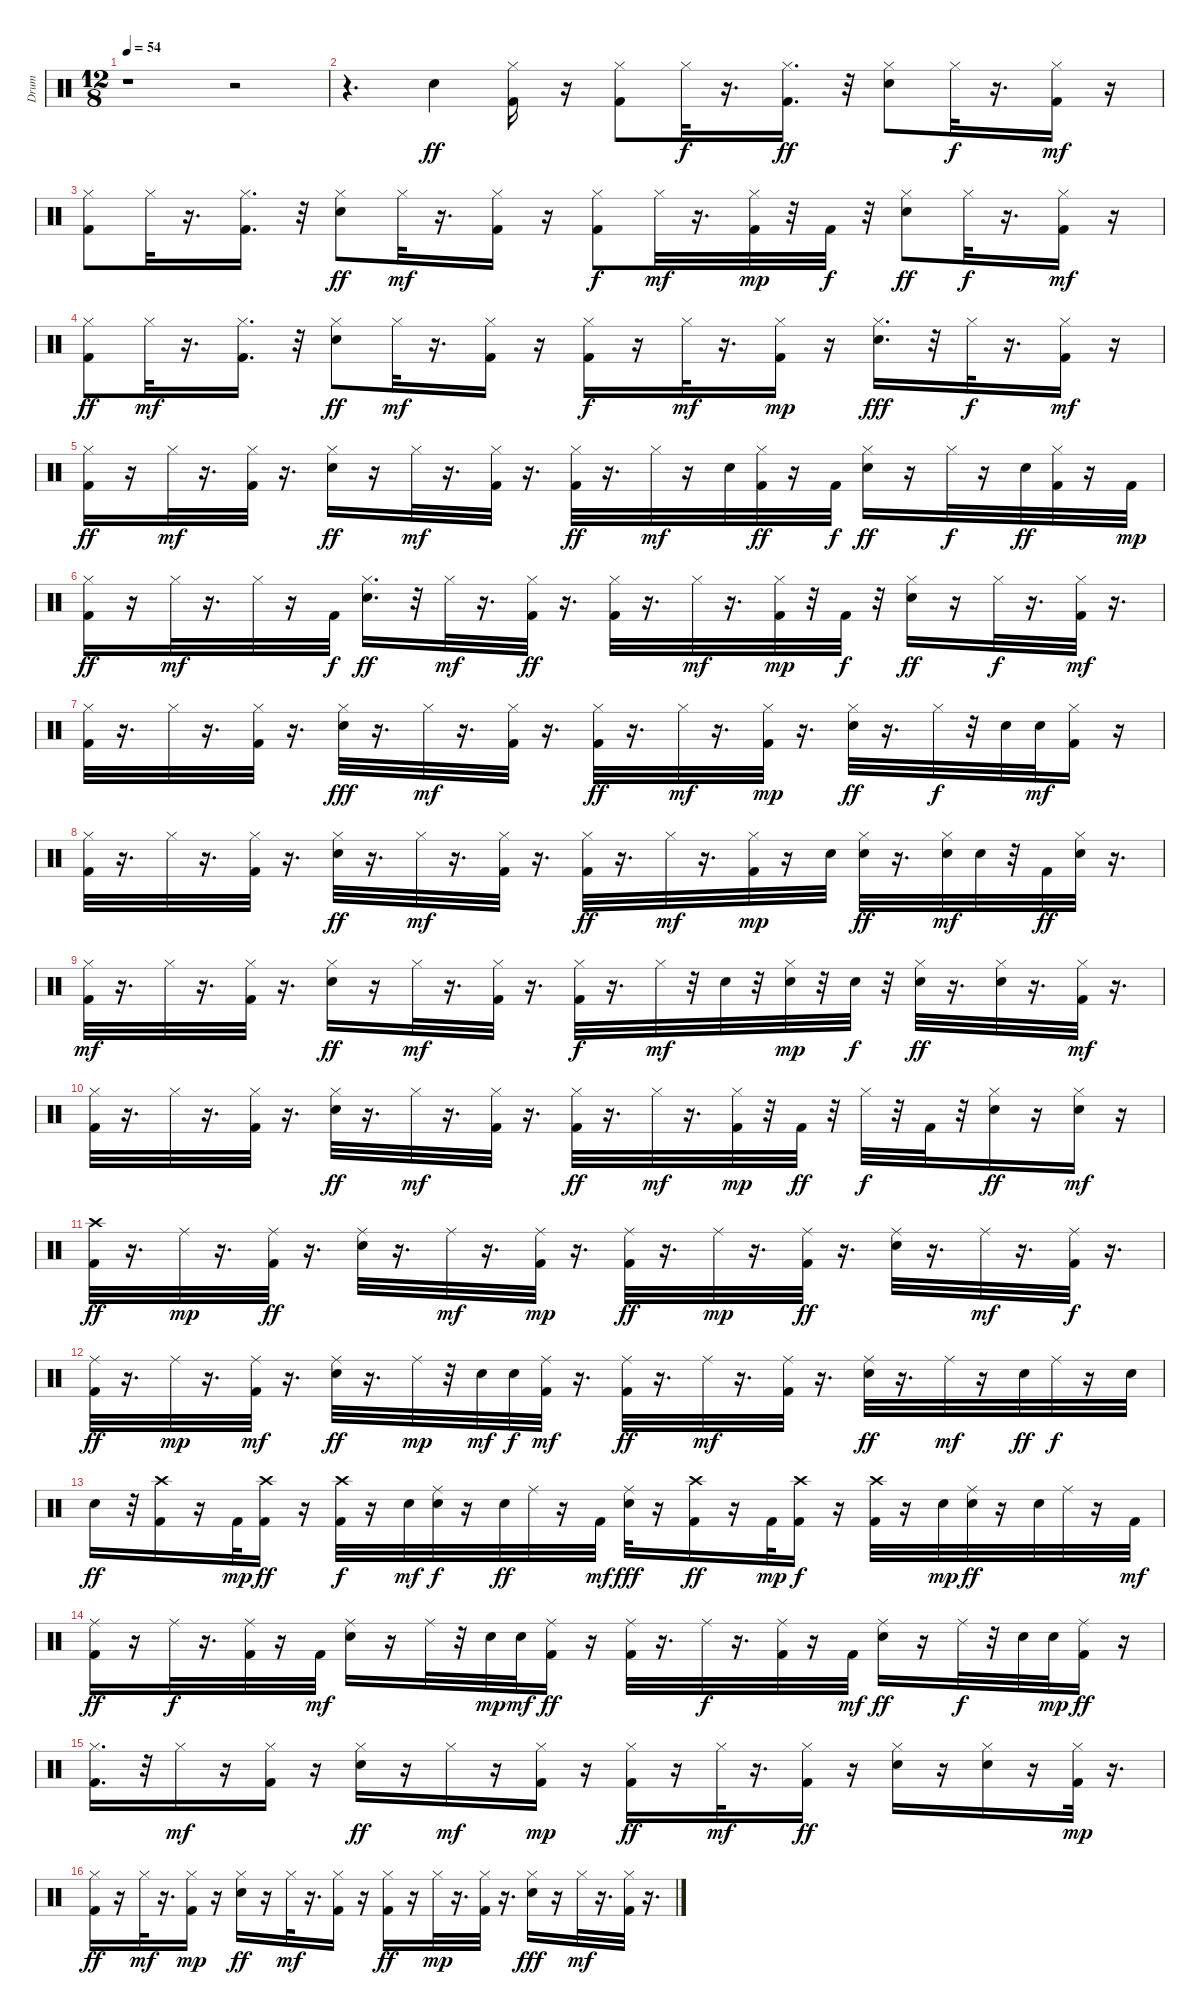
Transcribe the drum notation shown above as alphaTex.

\track ("Drum" "Drum") {instrument percussion}
\staff {score}
\articulation defaults
\ts (12 8)
\tempo 54
\clef neutral
\ks c
r.1{dy ff} r.2 |
r.4{d} "Electric Snare (hit)".4 ("Hi-Hat (closed)" "Kick (hit) 2").16 r.16 ("Kick (hit) 2" "Hi-Hat (closed)").8 "Hi-Hat (closed)".32{dy f} r.16{d} ("Hi-Hat (closed)" "Kick (hit) 2").16{d dy ff} r.32 ("Hi-Hat (closed)" "Electric Snare (hit)").8 "Hi-Hat (closed)".32{dy f} r.16{d} ("Kick (hit) 2" "Hi-Hat (closed)").16{dy mf} r.16 |
("Kick (hit) 2" "Hi-Hat (closed)").8 "Hi-Hat (closed)".32 r.16{d} ("Hi-Hat (closed)" "Kick (hit) 2").16{d} r.32 ("Electric Snare (hit)" "Hi-Hat (closed)").8{dy ff} "Hi-Hat (closed)".32{dy mf} r.16{d} ("Hi-Hat (closed)" "Kick (hit) 2").16 r.16 ("Kick (hit) 2" "Hi-Hat (closed)").8{dy f} "Hi-Hat (closed)".32{dy mf} r.16{d} ("Hi-Hat (closed)" "Kick (hit) 2").32{dy mp} r.32 "Kick (hit) 2".32{dy f} r.32 ("Hi-Hat (closed)" "Electric Snare (hit)").8{dy ff} "Hi-Hat (closed)".32{dy f} r.16{d} ("Hi-Hat (closed)" "Kick (hit) 2").16{dy mf} r.16 |
("Hi-Hat (closed)" "Kick (hit) 2").8{dy ff} "Hi-Hat (closed)".32{dy mf} r.16{d} ("Hi-Hat (closed)" "Kick (hit) 2").16{d} r.32 ("Electric Snare (hit)" "Hi-Hat (closed)").8{dy ff} "Hi-Hat (closed)".32{dy mf} r.16{d} ("Hi-Hat (closed)" "Kick (hit) 2").16 r.16 ("Kick (hit) 2" "Hi-Hat (closed)").16{dy f} r.16 "Hi-Hat (closed)".32{dy mf} r.16{d} ("Hi-Hat (closed)" "Kick (hit) 2").16{dy mp} r.16 ("Hi-Hat (closed)" "Electric Snare (hit)").16{d dy fff} r.32 "Hi-Hat (closed)".32{dy f} r.16{d} ("Hi-Hat (closed)" "Kick (hit) 2").16{dy mf} r.16 |
("Hi-Hat (closed)" "Kick (hit) 2").16{dy ff} r.16 "Hi-Hat (closed)".32{dy mf} r.16{d} ("Hi-Hat (closed)" "Kick (hit) 2").32 r.16{d} ("Electric Snare (hit)" "Hi-Hat (closed)").16{dy ff} r.16 "Hi-Hat (closed)".32{dy mf} r.16{d} ("Hi-Hat (closed)" "Kick (hit) 2").32 r.16{d} ("Kick (hit) 2" "Hi-Hat (closed)").32{dy ff} r.16{d} "Hi-Hat (closed)".32{dy mf} r.16 "Electric Snare (hit)".32 ("Hi-Hat (closed)" "Kick (hit) 2").32{dy ff} r.16 "Kick (hit) 2".32{dy f} ("Hi-Hat (closed)" "Electric Snare (hit)").16{dy ff} r.16 "Hi-Hat (closed)".32{dy f} r.16 "Electric Snare (hit)".32{dy ff} ("Hi-Hat (closed)" "Kick (hit) 2").32 r.16 "Kick (hit) 2".32{dy mp} |
("Hi-Hat (closed)" "Kick (hit) 2").16{dy ff} r.16 "Hi-Hat (closed)".32{dy mf} r.16{d} "Hi-Hat (closed)".32 r.16 "Kick (hit) 2".32{dy f} ("Electric Snare (hit)" "Hi-Hat (closed)").16{d dy ff} r.32 "Hi-Hat (closed)".32{dy mf} r.16{d} ("Hi-Hat (closed)" "Kick (hit) 2").32{dy ff} r.16{d} ("Kick (hit) 2" "Hi-Hat (closed)").32 r.16{d} "Hi-Hat (closed)".32{dy mf} r.16{d} ("Hi-Hat (closed)" "Kick (hit) 2").32{dy mp} r.32 "Kick (hit) 2".32{dy f} r.32 ("Hi-Hat (closed)" "Electric Snare (hit)").16{dy ff} r.16 "Hi-Hat (closed)".32{dy f} r.16{d} ("Hi-Hat (closed)" "Kick (hit) 2").32{dy mf} r.16{d} |
("Hi-Hat (closed)" "Kick (hit) 2").32 r.16{d} "Hi-Hat (closed)".32 r.16{d} ("Kick (hit) 2" "Hi-Hat (closed)").32 r.16{d} ("Electric Snare (hit)" "Hi-Hat (closed)").32{dy fff} r.16{d} "Hi-Hat (closed)".32{dy mf} r.16{d} ("Kick (hit) 2" "Hi-Hat (closed)").32 r.16{d} ("Kick (hit) 2" "Hi-Hat (closed)").32{dy ff} r.16{d} "Hi-Hat (closed)".32{dy mf} r.16{d} ("Kick (hit) 2" "Hi-Hat (closed)").32{dy mp} r.16{d} ("Electric Snare (hit)" "Hi-Hat (closed)").32{dy ff} r.16{d} "Hi-Hat (closed)".32{dy f} r.32 "Electric Snare (hit)".32 "Electric Snare (hit)".32{dy mf} ("Kick (hit) 2" "Hi-Hat (closed)").16 r.16 |
("Kick (hit) 2" "Hi-Hat (closed)").32 r.16{d} "Hi-Hat (closed)".32 r.16{d} ("Kick (hit) 2" "Hi-Hat (closed)").32 r.16{d} ("Electric Snare (hit)" "Hi-Hat (closed)").32{dy ff} r.16{d} "Hi-Hat (closed)".32{dy mf} r.16{d} ("Kick (hit) 2" "Hi-Hat (closed)").32 r.16{d} ("Kick (hit) 2" "Hi-Hat (closed)").32{dy ff} r.16{d} "Hi-Hat (closed)".32{dy mf} r.16{d} ("Kick (hit) 2" "Hi-Hat (closed)").32{dy mp} r.16 "Electric Snare (hit)".32 ("Electric Snare (hit)" "Hi-Hat (closed)").32{dy ff} r.16{d} ("Electric Snare (hit)" "Hi-Hat (closed)").32{dy mf} "Electric Snare (hit)".32 r.32 "Kick (hit) 2".32{dy ff} ("Hi-Hat (closed)" "Electric Snare (hit)").32 r.16{d} |
("Kick (hit) 2" "Hi-Hat (closed)").32{dy mf} r.16{d} "Hi-Hat (closed)".32 r.16{d} ("Kick (hit) 2" "Hi-Hat (closed)").32 r.16{d} ("Electric Snare (hit)" "Hi-Hat (closed)").16{dy ff} r.16 "Hi-Hat (closed)".32{dy mf} r.16{d} ("Kick (hit) 2" "Hi-Hat (closed)").32 r.16{d} ("Kick (hit) 2" "Hi-Hat (closed)").32{dy f} r.16{d} "Hi-Hat (closed)".32{dy mf} r.32 "Electric Snare (hit)".32 r.32 ("Electric Snare (hit)" "Hi-Hat (closed)").32{dy mp} r.32 "Electric Snare (hit)".32{dy f} r.32 ("Electric Snare (hit)" "Hi-Hat (closed)").32{dy ff} r.16{d} ("Electric Snare (hit)" "Hi-Hat (closed)").32 r.16{d} ("Hi-Hat (closed)" "Kick (hit) 2").32{dy mf} r.16{d} |
("Kick (hit) 2" "Hi-Hat (closed)").32 r.16{d} "Hi-Hat (closed)".32 r.16{d} ("Kick (hit) 2" "Hi-Hat (closed)").32 r.16{d} ("Electric Snare (hit)" "Hi-Hat (closed)").32{dy ff} r.16{d} "Hi-Hat (closed)".32{dy mf} r.16{d} ("Hi-Hat (closed)" "Kick (hit) 2").32 r.16{d} ("Kick (hit) 2" "Hi-Hat (closed)").32{dy ff} r.16{d} "Hi-Hat (closed)".32{dy mf} r.16{d} ("Kick (hit) 2" "Hi-Hat (closed)").32{dy mp} r.32 "Kick (hit) 2".32{dy ff} r.32 "Hi-Hat (closed)".32{dy f} r.32 "Kick (hit) 2".32 r.32 ("Electric Snare (hit)" "Hi-Hat (closed)").16{dy ff} r.16 ("Electric Snare (hit)" "Hi-Hat (closed)").16{dy mf} r.16 |
("Kick (hit) 2" "Crash high (hit)").32{dy ff} r.16{d} "Ride (middle)".32{dy mp} r.16{d} ("Kick (hit) 2" "Ride (middle)").32{dy ff} r.16{d} ("Electric Snare (hit)" "Ride (middle)").32 r.16{d} "Ride (middle)".32{dy mf} r.16{d} ("Kick (hit) 2" "Ride (middle)").32{dy mp} r.16{d} ("Kick (hit) 2" "Ride (middle)").32{dy ff} r.16{d} "Ride (middle)".32{dy mp} r.16{d} ("Kick (hit) 2" "Ride (middle)").32{dy ff} r.16{d} ("Electric Snare (hit)" "Ride (middle)").32 r.16{d} "Ride (middle)".32{dy mf} r.16{d} ("Kick (hit) 2" "Ride (middle)").32{dy f} r.16{d} |
("Kick (hit) 2" "Ride (middle)").32{dy ff} r.16{d} "Ride (middle)".32{dy mp} r.16{d} ("Kick (hit) 2" "Ride (middle)").32{dy mf} r.16{d} ("Electric Snare (hit)" "Ride (middle)").32{dy ff} r.16{d} "Ride (middle)".32{dy mp} r.32 "Electric Snare (hit)".32{dy mf} "Electric Snare (hit)".32{dy f} ("Ride (middle)" "Kick (hit) 2").32{dy mf} r.16{d} ("Kick (hit) 2" "Ride (middle)").32{dy ff} r.16{d} "Ride (middle)".32{dy mf} r.16{d} ("Kick (hit) 2" "Ride (middle)").32 r.16{d} ("Electric Snare (hit)" "Ride (middle)").32{dy ff} r.16{d} "Ride (middle)".32{dy mf} r.16 "Electric Snare (hit)".32{dy ff} "Ride (middle)".32{dy f} r.16 "Electric Snare (hit)".32 |
"Electric Snare (hit)".16{dy ff} r.32 ("Kick (hit) 2" "Crash high (hit)").16 r.16 "Kick (hit) 2".32{dy mp} ("Kick (hit) 2" "Crash high (hit)").16{dy ff} r.16 ("Kick (hit) 2" "Crash high (hit)").32{dy f} r.16 "Electric Snare (hit)".32{dy mf} ("Electric Snare (hit)" "Ride (middle)").32{dy f} r.16 "Electric Snare (hit)".32{dy ff} "Ride (middle)".32 r.16 "Kick (hit) 2".32{dy mf} ("Electric Snare (hit)" "Ride (middle)").32{dy fff} r.16 ("Kick (hit) 2" "Crash high (hit)").16{dy ff} r.16 "Kick (hit) 2".32{dy mp} ("Crash high (hit)" "Kick (hit) 2").16{dy f} r.16 ("Kick (hit) 2" "Crash high (hit)").32 r.16 "Electric Snare (hit)".32{dy mp} ("Electric Snare (hit)" "Ride (middle)").32{dy ff} r.16 "Electric Snare (hit)".32 "Ride (middle)".32 r.16 "Kick (hit) 2".32{dy mf} |
("Kick (hit) 2" "Ride (middle)").16{dy ff} r.16 "Ride (middle)".32{dy f} r.16{d} ("Kick (hit) 2" "Ride (middle)").32 r.16 "Kick (hit) 2".32{dy mf} ("Electric Snare (hit)" "Ride (middle)").16 r.16 "Ride (middle)".32 r.32 "Electric Snare (hit)".32{dy mp} "Electric Snare (hit)".32{dy mf} ("Kick (hit) 2" "Ride (middle)").16{dy ff} r.16 ("Kick (hit) 2" "Ride (middle)").32 r.16{d} "Ride (middle)".32{dy f} r.16{d} ("Kick (hit) 2" "Ride (middle)").32 r.16 "Kick (hit) 2".32{dy mf} ("Electric Snare (hit)" "Ride (middle)").16{dy ff} r.16 "Ride (middle)".32{dy f} r.32 "Electric Snare (hit)".32 "Electric Snare (hit)".32{dy mp} ("Kick (hit) 2" "Ride (middle)").16{dy ff} r.16 |
("Hi-Hat (closed)" "Kick (hit) 2").16{d} r.32 "Hi-Hat (closed)".16{dy mf} r.16 ("Kick (hit) 2" "Hi-Hat (closed)").16 r.16 ("Hi-Hat (closed)" "Electric Snare (hit)").16{dy ff} r.16 "Hi-Hat (closed)".16{dy mf} r.16 ("Hi-Hat (closed)" "Kick (hit) 2").16{dy mp} r.16 ("Hi-Hat (closed)" "Kick (hit) 2").16{dy ff} r.16 "Hi-Hat (closed)".32{dy mf} r.16{d} ("Hi-Hat (closed)" "Kick (hit) 2").16{dy ff} r.16 ("Hi-Hat (closed)" "Electric Snare (hit)").16 r.16 ("Hi-Hat (closed)" "Electric Snare (hit)").16 r.16 ("Hi-Hat (closed)" "Kick (hit) 2").32{dy mp} r.16{d} |
("Kick (hit) 2" "Hi-Hat (closed)").16{dy ff} r.16 "Hi-Hat (closed)".32{dy mf} r.16{d} ("Kick (hit) 2" "Hi-Hat (closed)").16{dy mp} r.16 ("Hi-Hat (closed)" "Electric Snare (hit)").16{dy ff} r.16 "Hi-Hat (closed)".32{dy mf} r.16{d} ("Kick (hit) 2" "Hi-Hat (closed)").16 r.16 ("Kick (hit) 2" "Hi-Hat (closed)").16{dy ff} r.16 "Hi-Hat (closed)".32{dy mp} r.16{d} ("Hi-Hat (closed)" "Kick (hit) 2").32 r.16{d} ("Hi-Hat (closed)" "Electric Snare (hit)").16{dy fff} r.16 "Hi-Hat (closed)".32{dy mf} r.16{d} ("Kick (hit) 2" "Hi-Hat (closed)").32 r.16{d}
